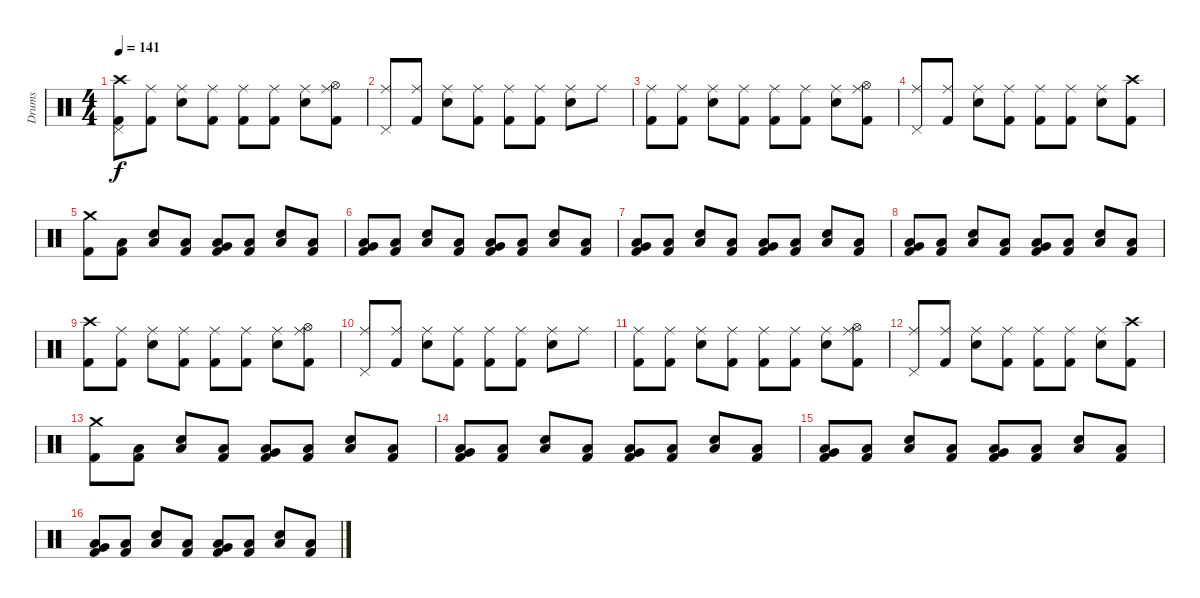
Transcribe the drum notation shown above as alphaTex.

\track ("Drums" "Drums") {instrument percussion}
\staff {score}
\articulation defaults
\ts (4 4)
\tempo 141
\clef neutral
\ks c
("Crash high (hit)" "Pedal Hi-Hat (hit)" "Kick (hit) 2").8{dy f} ("Ride (middle)" "Kick (hit) 2").8 ("Ride (middle)" "Electric Snare (hit)").8 ("Ride (middle)" "Kick (hit) 2").8 ("Ride (middle)" "Kick (hit) 2").8 ("Ride (middle)" "Kick (hit) 2").8 ("Ride (middle)" "Electric Snare (hit)").8 ("Ride (middle)" "Hi-Hat (open)" "Kick (hit) 2").8 |
("Ride (middle)" "Pedal Hi-Hat (hit)").8 ("Ride (middle)" "Kick (hit) 2").8 ("Ride (middle)" "Electric Snare (hit)").8 ("Ride (middle)" "Kick (hit) 2").8 ("Ride (middle)" "Kick (hit) 2").8 ("Ride (middle)" "Kick (hit) 2").8 ("Ride (middle)" "Electric Snare (hit)").8 "Ride (middle)".8 |
("Ride (middle)" "Kick (hit) 2").8 ("Ride (middle)" "Kick (hit) 2").8 ("Ride (middle)" "Electric Snare (hit)").8 ("Ride (middle)" "Kick (hit) 2").8 ("Ride (middle)" "Kick (hit) 2").8 ("Ride (middle)" "Kick (hit) 2").8 ("Ride (middle)" "Electric Snare (hit)").8 ("Ride (middle)" "Hi-Hat (open)" "Kick (hit) 2").8 |
("Ride (middle)" "Pedal Hi-Hat (hit)").8 ("Ride (middle)" "Kick (hit) 2").8 ("Ride (middle)" "Electric Snare (hit)").8 ("Ride (middle)" "Kick (hit) 2").8 ("Ride (middle)" "Kick (hit) 2").8 ("Ride (middle)" "Kick (hit) 2").8 ("Ride (middle)" "Electric Snare (hit)").8 ("Crash high (hit)" "Kick (hit) 2").8 |
("Crash medium (hit)" "Kick (hit) 2").8 ("Low Floor Tom (hit)" "Kick (hit) 2").8 ("Low Floor Tom (hit)" "Electric Snare (hit)").8 ("Low Floor Tom (hit)" "Kick (hit) 2").8 ("Low Floor Tom (hit)" "Very Low Tom (hit)" "Kick (hit) 2").8 ("Low Floor Tom (hit)" "Kick (hit) 2").8 ("Low Floor Tom (hit)" "Electric Snare (hit)").8 ("Low Floor Tom (hit)" "Kick (hit) 2").8 |
("Low Floor Tom (hit)" "Very Low Tom (hit)" "Kick (hit) 2").8 ("Low Floor Tom (hit)" "Kick (hit) 2").8 ("Low Floor Tom (hit)" "Electric Snare (hit)").8 ("Low Floor Tom (hit)" "Kick (hit) 2").8 ("Low Floor Tom (hit)" "Very Low Tom (hit)" "Kick (hit) 2").8 ("Low Floor Tom (hit)" "Kick (hit) 2").8 ("Low Floor Tom (hit)" "Electric Snare (hit)").8 ("Low Floor Tom (hit)" "Kick (hit) 2").8 |
("Low Floor Tom (hit)" "Very Low Tom (hit)" "Kick (hit) 2").8 ("Low Floor Tom (hit)" "Kick (hit) 2").8 ("Low Floor Tom (hit)" "Electric Snare (hit)").8 ("Low Floor Tom (hit)" "Kick (hit) 2").8 ("Low Floor Tom (hit)" "Very Low Tom (hit)" "Kick (hit) 2").8 ("Low Floor Tom (hit)" "Kick (hit) 2").8 ("Low Floor Tom (hit)" "Electric Snare (hit)").8 ("Low Floor Tom (hit)" "Kick (hit) 2").8 |
("Low Floor Tom (hit)" "Very Low Tom (hit)" "Kick (hit) 2").8 ("Low Floor Tom (hit)" "Kick (hit) 2").8 ("Low Floor Tom (hit)" "Electric Snare (hit)").8 ("Low Floor Tom (hit)" "Kick (hit) 2").8 ("Low Floor Tom (hit)" "Very Low Tom (hit)" "Kick (hit) 2").8 ("Low Floor Tom (hit)" "Kick (hit) 2").8 ("Low Floor Tom (hit)" "Electric Snare (hit)").8 ("Low Floor Tom (hit)" "Kick (hit) 2").8 |
("Crash high (hit)" "Kick (hit) 2").8 ("Ride (middle)" "Kick (hit) 2").8 ("Ride (middle)" "Electric Snare (hit)").8 ("Ride (middle)" "Kick (hit) 2").8 ("Ride (middle)" "Kick (hit) 2").8 ("Ride (middle)" "Kick (hit) 2").8 ("Ride (middle)" "Electric Snare (hit)").8 ("Ride (middle)" "Hi-Hat (open)" "Kick (hit) 2").8 |
("Ride (middle)" "Pedal Hi-Hat (hit)").8 ("Ride (middle)" "Kick (hit) 2").8 ("Ride (middle)" "Electric Snare (hit)").8 ("Ride (middle)" "Kick (hit) 2").8 ("Ride (middle)" "Kick (hit) 2").8 ("Ride (middle)" "Kick (hit) 2").8 ("Ride (middle)" "Electric Snare (hit)").8 "Ride (middle)".8 |
("Ride (middle)" "Kick (hit) 2").8 ("Ride (middle)" "Kick (hit) 2").8 ("Ride (middle)" "Electric Snare (hit)").8 ("Ride (middle)" "Kick (hit) 2").8 ("Ride (middle)" "Kick (hit) 2").8 ("Ride (middle)" "Kick (hit) 2").8 ("Ride (middle)" "Electric Snare (hit)").8 ("Ride (middle)" "Hi-Hat (open)" "Kick (hit) 2").8 |
("Ride (middle)" "Pedal Hi-Hat (hit)").8 ("Ride (middle)" "Kick (hit) 2").8 ("Ride (middle)" "Electric Snare (hit)").8 ("Ride (middle)" "Kick (hit) 2").8 ("Ride (middle)" "Kick (hit) 2").8 ("Ride (middle)" "Kick (hit) 2").8 ("Ride (middle)" "Electric Snare (hit)").8 ("Crash high (hit)" "Kick (hit) 2").8 |
("Crash medium (hit)" "Kick (hit) 2").8 ("Low Floor Tom (hit)" "Kick (hit) 2").8 ("Low Floor Tom (hit)" "Electric Snare (hit)").8 ("Low Floor Tom (hit)" "Kick (hit) 2").8 ("Low Floor Tom (hit)" "Very Low Tom (hit)" "Kick (hit) 2").8 ("Low Floor Tom (hit)" "Kick (hit) 2").8 ("Low Floor Tom (hit)" "Electric Snare (hit)").8 ("Low Floor Tom (hit)" "Kick (hit) 2").8 |
("Low Floor Tom (hit)" "Very Low Tom (hit)" "Kick (hit) 2").8 ("Low Floor Tom (hit)" "Kick (hit) 2").8 ("Low Floor Tom (hit)" "Electric Snare (hit)").8 ("Low Floor Tom (hit)" "Kick (hit) 2").8 ("Low Floor Tom (hit)" "Very Low Tom (hit)" "Kick (hit) 2").8 ("Low Floor Tom (hit)" "Kick (hit) 2").8 ("Low Floor Tom (hit)" "Electric Snare (hit)").8 ("Low Floor Tom (hit)" "Kick (hit) 2").8 |
("Low Floor Tom (hit)" "Very Low Tom (hit)" "Kick (hit) 2").8 ("Low Floor Tom (hit)" "Kick (hit) 2").8 ("Low Floor Tom (hit)" "Electric Snare (hit)").8 ("Low Floor Tom (hit)" "Kick (hit) 2").8 ("Low Floor Tom (hit)" "Very Low Tom (hit)" "Kick (hit) 2").8 ("Low Floor Tom (hit)" "Kick (hit) 2").8 ("Low Floor Tom (hit)" "Electric Snare (hit)").8 ("Low Floor Tom (hit)" "Kick (hit) 2").8 |
("Low Floor Tom (hit)" "Very Low Tom (hit)" "Kick (hit) 2").8 ("Low Floor Tom (hit)" "Kick (hit) 2").8 ("Low Floor Tom (hit)" "Electric Snare (hit)").8 ("Low Floor Tom (hit)" "Kick (hit) 2").8 ("Low Floor Tom (hit)" "Very Low Tom (hit)" "Kick (hit) 2").8 ("Low Floor Tom (hit)" "Kick (hit) 2").8 ("Low Floor Tom (hit)" "Electric Snare (hit)").8 ("Low Floor Tom (hit)" "Kick (hit) 2").8
